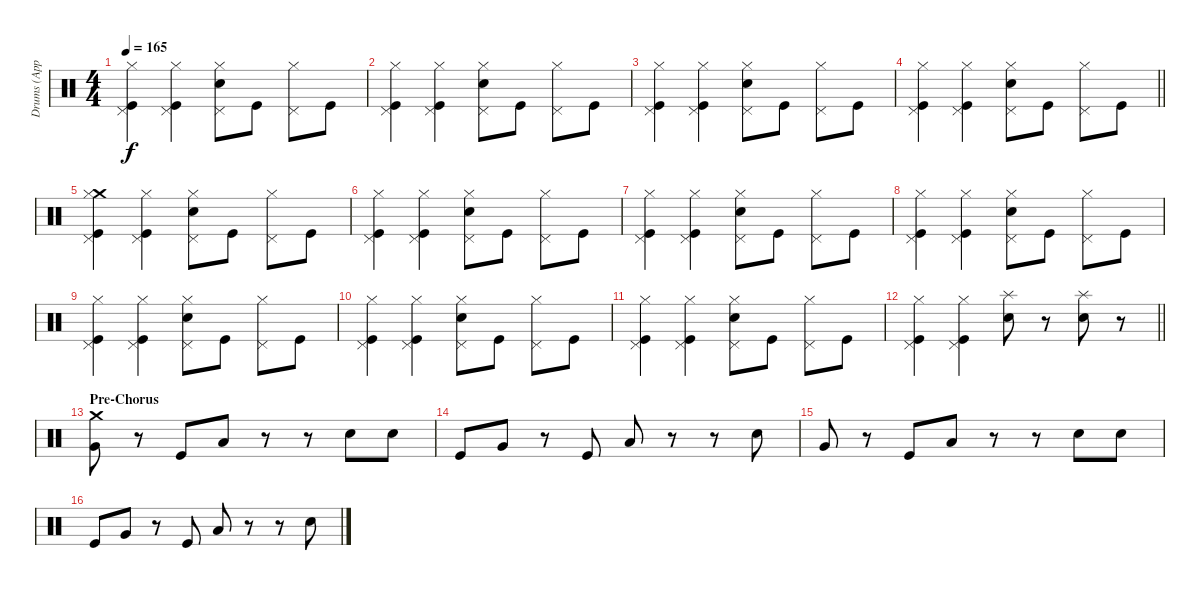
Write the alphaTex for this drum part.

\track ("Drums (Approx.)" "Drums (App") {instrument percussion}
\staff {score}
\articulation defaults
\ts (4 4)
\tempo 165
\clef neutral
\ks c
("Hi-Hat (closed)" "Pedal Hi-Hat (hit)" "Kick (hit)").4{dy f} ("Hi-Hat (closed)" "Pedal Hi-Hat (hit)" "Kick (hit)").4 ("Hi-Hat (closed)" "Pedal Hi-Hat (hit)" "Electric Snare (hit)").8 "Kick (hit)".8 ("Hi-Hat (closed)" "Pedal Hi-Hat (hit)").8 "Kick (hit)".8 |
("Hi-Hat (closed)" "Pedal Hi-Hat (hit)" "Kick (hit)").4 ("Hi-Hat (closed)" "Pedal Hi-Hat (hit)" "Kick (hit)").4 ("Hi-Hat (closed)" "Pedal Hi-Hat (hit)" "Electric Snare (hit)").8 "Kick (hit)".8 ("Hi-Hat (closed)" "Pedal Hi-Hat (hit)").8 "Kick (hit)".8 |
("Hi-Hat (closed)" "Pedal Hi-Hat (hit)" "Kick (hit)").4 ("Hi-Hat (closed)" "Pedal Hi-Hat (hit)" "Kick (hit)").4 ("Hi-Hat (closed)" "Pedal Hi-Hat (hit)" "Electric Snare (hit)").8 "Kick (hit)".8 ("Hi-Hat (closed)" "Pedal Hi-Hat (hit)").8 "Kick (hit)".8 |
\barLineRight lightlight
("Hi-Hat (closed)" "Pedal Hi-Hat (hit)" "Kick (hit)").4 ("Hi-Hat (closed)" "Pedal Hi-Hat (hit)" "Kick (hit)").4 ("Hi-Hat (closed)" "Pedal Hi-Hat (hit)" "Electric Snare (hit)").8 "Kick (hit)".8 ("Hi-Hat (closed)" "Pedal Hi-Hat (hit)").8 "Kick (hit)".8 |
("Crash medium (hit)" "Hi-Hat (closed)" "Pedal Hi-Hat (hit)" "Kick (hit)").4 ("Hi-Hat (closed)" "Pedal Hi-Hat (hit)" "Kick (hit)").4 ("Hi-Hat (closed)" "Pedal Hi-Hat (hit)" "Electric Snare (hit)").8 "Kick (hit)".8 ("Hi-Hat (closed)" "Pedal Hi-Hat (hit)").8 "Kick (hit)".8 |
("Hi-Hat (closed)" "Pedal Hi-Hat (hit)" "Kick (hit)").4 ("Hi-Hat (closed)" "Pedal Hi-Hat (hit)" "Kick (hit)").4 ("Hi-Hat (closed)" "Pedal Hi-Hat (hit)" "Electric Snare (hit)").8 "Kick (hit)".8 ("Hi-Hat (closed)" "Pedal Hi-Hat (hit)").8 "Kick (hit)".8 |
("Hi-Hat (closed)" "Pedal Hi-Hat (hit)" "Kick (hit)").4 ("Hi-Hat (closed)" "Pedal Hi-Hat (hit)" "Kick (hit)").4 ("Hi-Hat (closed)" "Pedal Hi-Hat (hit)" "Electric Snare (hit)").8 "Kick (hit)".8 ("Hi-Hat (closed)" "Pedal Hi-Hat (hit)").8 "Kick (hit)".8 |
("Hi-Hat (closed)" "Pedal Hi-Hat (hit)" "Kick (hit)").4 ("Hi-Hat (closed)" "Pedal Hi-Hat (hit)" "Kick (hit)").4 ("Hi-Hat (closed)" "Pedal Hi-Hat (hit)" "Electric Snare (hit)").8 "Kick (hit)".8 ("Hi-Hat (closed)" "Pedal Hi-Hat (hit)").8 "Kick (hit)".8 |
("Hi-Hat (closed)" "Pedal Hi-Hat (hit)" "Kick (hit)").4 ("Hi-Hat (closed)" "Pedal Hi-Hat (hit)" "Kick (hit)").4 ("Hi-Hat (closed)" "Pedal Hi-Hat (hit)" "Electric Snare (hit)").8 "Kick (hit)".8 ("Hi-Hat (closed)" "Pedal Hi-Hat (hit)").8 "Kick (hit)".8 |
("Hi-Hat (closed)" "Pedal Hi-Hat (hit)" "Kick (hit)").4 ("Hi-Hat (closed)" "Pedal Hi-Hat (hit)" "Kick (hit)").4 ("Hi-Hat (closed)" "Pedal Hi-Hat (hit)" "Electric Snare (hit)").8 "Kick (hit)".8 ("Hi-Hat (closed)" "Pedal Hi-Hat (hit)").8 "Kick (hit)".8 |
("Hi-Hat (closed)" "Pedal Hi-Hat (hit)" "Kick (hit)").4 ("Hi-Hat (closed)" "Pedal Hi-Hat (hit)" "Kick (hit)").4 ("Hi-Hat (closed)" "Pedal Hi-Hat (hit)" "Electric Snare (hit)").8 "Kick (hit)".8 ("Hi-Hat (closed)" "Pedal Hi-Hat (hit)").8 "Kick (hit)".8 |
\barLineRight lightlight
("Hi-Hat (closed)" "Pedal Hi-Hat (hit)" "Kick (hit)").4 ("Hi-Hat (closed)" "Pedal Hi-Hat (hit)" "Kick (hit)").4 ("Splash (hit)" "Electric Snare (hit)").8 r.8 ("Splash (hit)" "Electric Snare (hit)").8 r.8 |
\section ("" "Pre-Chorus")
("Crash medium (hit)" "Very Low Tom (hit)").8 r.8 "Kick (hit)".8 "Low Floor Tom (hit)".8 r.8 r.8 "Electric Snare (hit)".8 "Electric Snare (hit)".8 |
"Kick (hit)".8 "Very Low Tom (hit)".8 r.8 "Kick (hit)".8 "Low Floor Tom (hit)".8 r.8 r.8 "Electric Snare (hit)".8 |
"Very Low Tom (hit)".8 r.8 "Kick (hit)".8 "Low Floor Tom (hit)".8 r.8 r.8 "Electric Snare (hit)".8 "Electric Snare (hit)".8 |
"Kick (hit)".8 "Very Low Tom (hit)".8 r.8 "Kick (hit)".8 "Low Floor Tom (hit)".8 r.8 r.8 "Electric Snare (hit)".8
